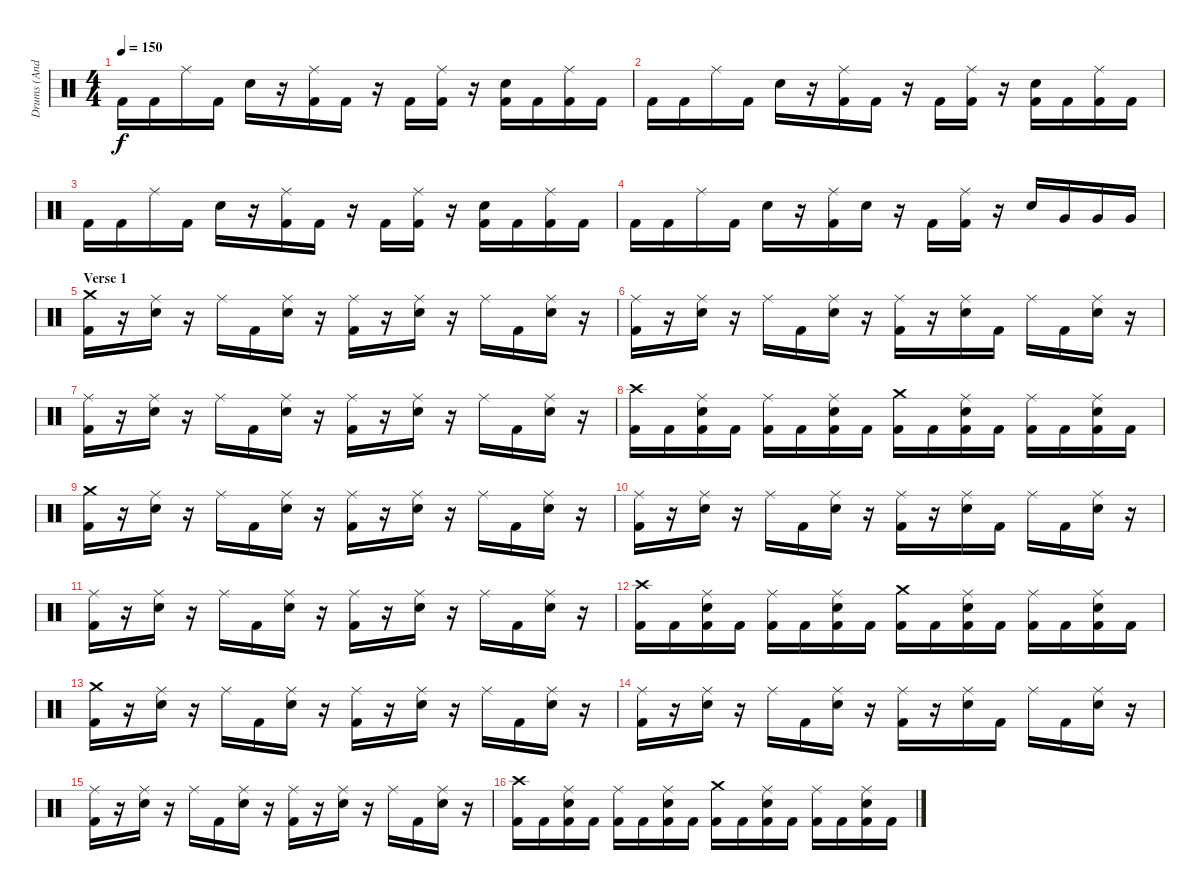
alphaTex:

\track ("Drums (Andy C)" "Drums (And") {instrument percussion}
\staff {score}
\articulation defaults
\ts (4 4)
\tempo 150
\clef neutral
\ks c "Kick (hit) 2".16{dy f} "Kick (hit) 2".16 "Ride (middle)".16 "Kick (hit) 2".16 "Electric Snare (hit)".16
r.16 ("Ride (middle)" "Kick (hit) 2").16 "Kick (hit) 2".16 r.16 "Kick (hit) 2".16 ("Ride (middle)" "Kick (hit) 2").16 r.16 ("Kick (hit) 2" "Electric Snare (hit)").16 "Kick (hit) 2".16 ("Ride (middle)" "Kick (hit) 2").16 "Kick (hit) 2".16 |
"Kick (hit) 2".16 "Kick (hit) 2".16 "Ride (middle)".16 "Kick (hit) 2".16 "Electric Snare (hit)".16 r.16 ("Ride (middle)" "Kick (hit) 2").16 "Kick (hit) 2".16 r.16 "Kick (hit) 2".16 ("Ride (middle)" "Kick (hit) 2").16 r.16 ("Kick (hit) 2" "Electric Snare (hit)").16 "Kick (hit) 2".16 ("Ride (middle)" "Kick (hit) 2").16 "Kick (hit) 2".16 |
"Kick (hit) 2".16 "Kick (hit) 2".16 "Ride (middle)".16 "Kick (hit) 2".16 "Electric Snare (hit)".16 r.16 ("Ride (middle)" "Kick (hit) 2").16 "Kick (hit) 2".16 r.16 "Kick (hit) 2".16 ("Ride (middle)" "Kick (hit) 2").16 r.16 ("Kick (hit) 2" "Electric Snare (hit)").16 "Kick (hit) 2".16 ("Ride (middle)" "Kick (hit) 2").16 "Kick (hit) 2".16 |
"Kick (hit) 2".16 "Kick (hit) 2".16 "Ride (middle)".16 "Kick (hit) 2".16 "Electric Snare (hit)".16 r.16 ("Ride (middle)" "Kick (hit) 2").16 "Electric Snare (hit)".16 r.16 "Kick (hit) 2".16 ("Ride (middle)" "Kick (hit) 2").16 r.16 "Electric Snare (hit)".16 "Very Low Tom (hit)".16 "Very Low Tom (hit)".16 "Very Low Tom (hit)".16 |
\section ("" "Verse 1")
("Crash medium (hit)" "Kick (hit) 2").16 r.16 ("Ride (middle)" "Electric Snare (hit)").16 r.16 "Ride (middle)".16 "Kick (hit) 2".16 ("Ride (middle)" "Electric Snare (hit)").16 r.16 ("Ride (middle)" "Kick (hit) 2").16 r.16 ("Ride (middle)" "Electric Snare (hit)").16 r.16 "Ride (middle)".16 "Kick (hit) 2".16 ("Ride (middle)" "Electric Snare (hit)").16 r.16 |
("Ride (middle)" "Kick (hit) 2").16 r.16 ("Ride (middle)" "Electric Snare (hit)").16 r.16 "Ride (middle)".16 "Kick (hit) 2".16 ("Ride (middle)" "Electric Snare (hit)").16 r.16 ("Ride (middle)" "Kick (hit) 2").16 r.16 ("Ride (middle)" "Electric Snare (hit)").16 "Kick (hit) 2".16 "Ride (middle)".16 "Kick (hit) 2".16 ("Ride (middle)" "Electric Snare (hit)").16 r.16 |
("Ride (middle)" "Kick (hit) 2").16 r.16 ("Ride (middle)" "Electric Snare (hit)").16 r.16 "Ride (middle)".16 "Kick (hit) 2".16 ("Ride (middle)" "Electric Snare (hit)").16 r.16 ("Ride (middle)" "Kick (hit) 2").16 r.16 ("Ride (middle)" "Electric Snare (hit)").16 r.16 "Ride (middle)".16 "Kick (hit) 2".16 ("Ride (middle)" "Electric Snare (hit)").16 r.16 |
("Crash high (hit)" "Kick (hit) 2").16 "Kick (hit) 2".16 ("Ride (middle)" "Kick (hit) 2" "Electric Snare (hit)").16 "Kick (hit) 2".16 ("Ride (middle)" "Kick (hit) 2").16 "Kick (hit) 2".16 ("Ride (middle)" "Kick (hit) 2" "Electric Snare (hit)").16 "Kick (hit) 2".16 ("Crash medium (hit)" "Kick (hit) 2").16 "Kick (hit) 2".16 ("Ride (middle)" "Kick (hit) 2" "Electric Snare (hit)").16 "Kick (hit) 2".16 ("Ride (middle)" "Kick (hit) 2").16 "Kick (hit) 2".16 ("Ride (middle)" "Kick (hit) 2" "Electric Snare (hit)").16 "Kick (hit) 2".16 |
("Crash medium (hit)" "Kick (hit) 2").16 r.16 ("Ride (middle)" "Electric Snare (hit)").16 r.16 "Ride (middle)".16 "Kick (hit) 2".16 ("Ride (middle)" "Electric Snare (hit)").16 r.16 ("Ride (middle)" "Kick (hit) 2").16 r.16 ("Ride (middle)" "Electric Snare (hit)").16 r.16 "Ride (middle)".16 "Kick (hit) 2".16 ("Ride (middle)" "Electric Snare (hit)").16 r.16 |
("Ride (middle)" "Kick (hit) 2").16 r.16 ("Ride (middle)" "Electric Snare (hit)").16 r.16 "Ride (middle)".16 "Kick (hit) 2".16 ("Ride (middle)" "Electric Snare (hit)").16 r.16 ("Ride (middle)" "Kick (hit) 2").16 r.16 ("Ride (middle)" "Electric Snare (hit)").16 "Kick (hit) 2".16 "Ride (middle)".16 "Kick (hit) 2".16 ("Ride (middle)" "Electric Snare (hit)").16 r.16 |
("Ride (middle)" "Kick (hit) 2").16 r.16 ("Ride (middle)" "Electric Snare (hit)").16 r.16 "Ride (middle)".16 "Kick (hit) 2".16 ("Ride (middle)" "Electric Snare (hit)").16 r.16 ("Ride (middle)" "Kick (hit) 2").16 r.16 ("Ride (middle)" "Electric Snare (hit)").16 r.16 "Ride (middle)".16 "Kick (hit) 2".16 ("Ride (middle)" "Electric Snare (hit)").16 r.16 |
("Crash high (hit)" "Kick (hit) 2").16 "Kick (hit) 2".16 ("Ride (middle)" "Kick (hit) 2" "Electric Snare (hit)").16 "Kick (hit) 2".16 ("Ride (middle)" "Kick (hit) 2").16 "Kick (hit) 2".16 ("Ride (middle)" "Kick (hit) 2" "Electric Snare (hit)").16 "Kick (hit) 2".16 ("Crash medium (hit)" "Kick (hit) 2").16 "Kick (hit) 2".16 ("Ride (middle)" "Kick (hit) 2" "Electric Snare (hit)").16 "Kick (hit) 2".16 ("Ride (middle)" "Kick (hit) 2").16 "Kick (hit) 2".16 ("Ride (middle)" "Kick (hit) 2" "Electric Snare (hit)").16 "Kick (hit) 2".16 |
("Crash medium (hit)" "Kick (hit) 2").16 r.16 ("Ride (middle)" "Electric Snare (hit)").16 r.16 "Ride (middle)".16 "Kick (hit) 2".16 ("Ride (middle)" "Electric Snare (hit)").16 r.16 ("Ride (middle)" "Kick (hit) 2").16 r.16 ("Ride (middle)" "Electric Snare (hit)").16 r.16 "Ride (middle)".16 "Kick (hit) 2".16 ("Ride (middle)" "Electric Snare (hit)").16 r.16 |
("Ride (middle)" "Kick (hit) 2").16 r.16 ("Ride (middle)" "Electric Snare (hit)").16 r.16 "Ride (middle)".16 "Kick (hit) 2".16 ("Ride (middle)" "Electric Snare (hit)").16 r.16 ("Ride (middle)" "Kick (hit) 2").16 r.16 ("Ride (middle)" "Electric Snare (hit)").16 "Kick (hit) 2".16 "Ride (middle)".16 "Kick (hit) 2".16 ("Ride (middle)" "Electric Snare (hit)").16 r.16 |
("Ride (middle)" "Kick (hit) 2").16 r.16 ("Ride (middle)" "Electric Snare (hit)").16 r.16 "Ride (middle)".16 "Kick (hit) 2".16 ("Ride (middle)" "Electric Snare (hit)").16 r.16 ("Ride (middle)" "Kick (hit) 2").16 r.16 ("Ride (middle)" "Electric Snare (hit)").16 r.16 "Ride (middle)".16 "Kick (hit) 2".16 ("Ride (middle)" "Electric Snare (hit)").16 r.16 |
("Crash high (hit)" "Kick (hit) 2").16 "Kick (hit) 2".16 ("Ride (middle)" "Kick (hit) 2" "Electric Snare (hit)").16 "Kick (hit) 2".16 ("Ride (middle)" "Kick (hit) 2").16 "Kick (hit) 2".16 ("Ride (middle)" "Kick (hit) 2" "Electric Snare (hit)").16 "Kick (hit) 2".16 ("Crash medium (hit)" "Kick (hit) 2").16 "Kick (hit) 2".16 ("Ride (middle)" "Kick (hit) 2" "Electric Snare (hit)").16 "Kick (hit) 2".16 ("Ride (middle)" "Kick (hit) 2").16 "Kick (hit) 2".16 ("Ride (middle)" "Kick (hit) 2" "Electric Snare (hit)").16 "Kick (hit) 2".16
